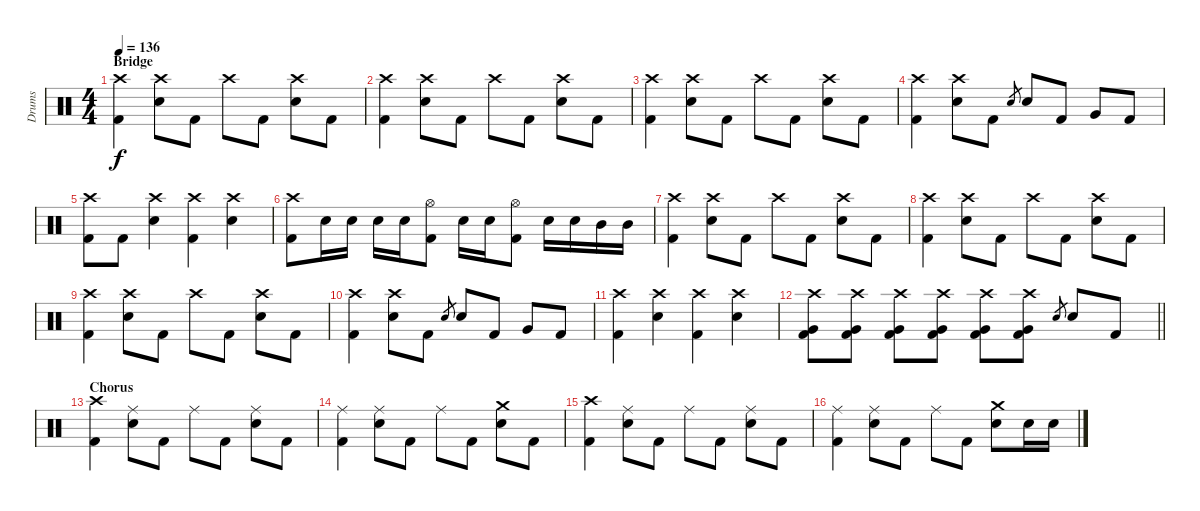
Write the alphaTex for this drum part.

\track ("Drums" "Drums") {instrument percussion}
\staff {score}
\articulation defaults
\ts (4 4)
\section ("" "Bridge")
\tempo 136
\clef neutral
\ks c
("Crash high (hit)" "Kick (hit) 2").4{dy f} ("Crash high (hit)" "Electric Snare (hit)").8 "Kick (hit) 2".8 "Crash high (hit)".8 "Kick (hit) 2".8 ("Crash high (hit)" "Electric Snare (hit)").8 "Kick (hit) 2".8 |
("Crash high (hit)" "Kick (hit) 2").4 ("Crash high (hit)" "Electric Snare (hit)").8 "Kick (hit) 2".8 "Crash high (hit)".8 "Kick (hit) 2".8 ("Crash high (hit)" "Electric Snare (hit)").8 "Kick (hit) 2".8 |
("Crash high (hit)" "Kick (hit) 2").4 ("Crash high (hit)" "Electric Snare (hit)").8 "Kick (hit) 2".8 "Crash high (hit)".8 "Kick (hit) 2".8 ("Crash high (hit)" "Electric Snare (hit)").8 "Kick (hit) 2".8 |
("Crash high (hit)" "Kick (hit) 2").4 ("Crash high (hit)" "Electric Snare (hit)").8 "Kick (hit) 2".8 "Electric Snare (hit)".8{gr} "Electric Snare (hit)".8 "Kick (hit) 2".8 "Very Low Tom (hit)".8 "Kick (hit) 2".8 |
("Crash high (hit)" "Kick (hit) 2").8 "Kick (hit) 2".8 ("Crash high (hit)" "Electric Snare (hit)").4 ("Crash high (hit)" "Kick (hit) 2").4 ("Crash high (hit)" "Electric Snare (hit)").4 |
("Crash high (hit)" "Kick (hit) 2").8 "Electric Snare (hit)".16 "Electric Snare (hit)".16 "Electric Snare (hit)".16 "Electric Snare (hit)".16 ("Hi-Hat (open)" "Kick (hit) 2").8 "Electric Snare (hit)".16 "Electric Snare (hit)".16 ("Hi-Hat (open)" "Kick (hit) 2").8 "Electric Snare (hit)".16 "Electric Snare (hit)".16 "Mid Tom (hit)".16 "Mid Tom (hit)".16 |
("Crash high (hit)" "Kick (hit) 2").4 ("Crash high (hit)" "Electric Snare (hit)").8 "Kick (hit) 2".8 "Crash high (hit)".8 "Kick (hit) 2".8 ("Crash high (hit)" "Electric Snare (hit)").8 "Kick (hit) 2".8 |
("Crash high (hit)" "Kick (hit) 2").4 ("Crash high (hit)" "Electric Snare (hit)").8 "Kick (hit) 2".8 "Crash high (hit)".8 "Kick (hit) 2".8 ("Crash high (hit)" "Electric Snare (hit)").8 "Kick (hit) 2".8 |
("Crash high (hit)" "Kick (hit) 2").4 ("Crash high (hit)" "Electric Snare (hit)").8 "Kick (hit) 2".8 "Crash high (hit)".8 "Kick (hit) 2".8 ("Crash high (hit)" "Electric Snare (hit)").8 "Kick (hit) 2".8 |
("Crash high (hit)" "Kick (hit) 2").4 ("Crash high (hit)" "Electric Snare (hit)").8 "Kick (hit) 2".8 "Electric Snare (hit)".8{gr} "Electric Snare (hit)".8 "Kick (hit) 2".8 "Very Low Tom (hit)".8 "Kick (hit) 2".8 |
("Crash high (hit)" "Kick (hit) 2").4 ("Crash high (hit)" "Electric Snare (hit)").4 ("Crash high (hit)" "Kick (hit) 2").4 ("Crash high (hit)" "Electric Snare (hit)").4 |
\barLineRight lightlight
("Crash high (hit)" "Very Low Tom (hit)" "Kick (hit) 2").8 ("Crash high (hit)" "Very Low Tom (hit)" "Kick (hit) 2").8 ("Crash high (hit)" "Very Low Tom (hit)" "Kick (hit) 2").8 ("Crash high (hit)" "Very Low Tom (hit)" "Kick (hit) 2").8 ("Crash high (hit)" "Very Low Tom (hit)" "Kick (hit) 2").8 ("Crash high (hit)" "Very Low Tom (hit)" "Kick (hit) 2").8 "Electric Snare (hit)".8{gr} "Electric Snare (hit)".8 "Kick (hit) 2".8 |
\section ("" "Chorus")
("Crash high (hit)" "Kick (hit) 2").4 ("Ride (middle)" "Electric Snare (hit)").8 "Kick (hit) 2".8 "Ride (middle)".8 "Kick (hit) 2".8 ("Ride (middle)" "Electric Snare (hit)").8 "Kick (hit) 2".8 |
("Ride (middle)" "Kick (hit) 2").4 ("Ride (middle)" "Electric Snare (hit)").8 "Kick (hit) 2".8 "Ride (middle)".8 "Kick (hit) 2".8 ("Crash medium (hit)" "Electric Snare (hit)").8 "Kick (hit) 2".8 |
("Crash high (hit)" "Kick (hit) 2").4 ("Ride (middle)" "Electric Snare (hit)").8 "Kick (hit) 2".8 "Ride (middle)".8 "Kick (hit) 2".8 ("Ride (middle)" "Electric Snare (hit)").8 "Kick (hit) 2".8 |
("Ride (middle)" "Kick (hit) 2").4 ("Ride (middle)" "Electric Snare (hit)").8 "Kick (hit) 2".8 "Ride (middle)".8 "Kick (hit) 2".8 ("Crash medium (hit)" "Electric Snare (hit)").8 "Electric Snare (hit)".16 "Electric Snare (hit)".16
